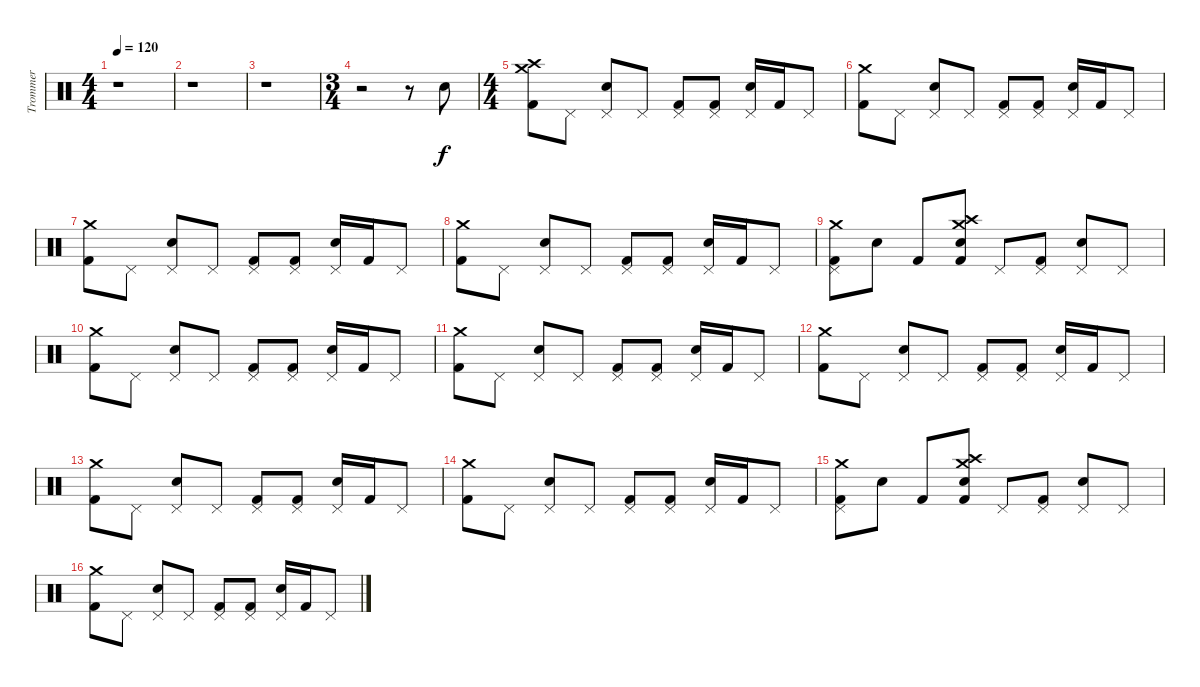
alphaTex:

\track ("Trommer" "Trommer") {instrument percussion}
\staff {score}
\articulation defaults
\ts (4 4)
\tempo 120
\clef neutral
\ks c
r.1{dy f} |
r.1 |
r.1 |
\ts (3 4)
r.2 r.8 "Snare (hit) 2".8 |
\ts (4 4)
("Crash medium (hit)" "Crash high (hit)" "Kick (hit) 2").8 "Pedal Hi-Hat (hit)".8 ("Pedal Hi-Hat (hit)" "Snare (hit) 2").8 "Pedal Hi-Hat (hit)".8 ("Pedal Hi-Hat (hit)" "Kick (hit) 2").8 ("Pedal Hi-Hat (hit)" "Kick (hit) 2").8 ("Pedal Hi-Hat (hit)" "Snare (hit) 2").16 "Kick (hit) 2".16 "Pedal Hi-Hat (hit)".8 |
("Kick (hit) 2" "Crash medium (hit)").8 "Pedal Hi-Hat (hit)".8 ("Pedal Hi-Hat (hit)" "Snare (hit) 2").8 "Pedal Hi-Hat (hit)".8 ("Pedal Hi-Hat (hit)" "Kick (hit) 2").8 ("Pedal Hi-Hat (hit)" "Kick (hit) 2").8 ("Pedal Hi-Hat (hit)" "Snare (hit) 2").16 "Kick (hit) 2".16 "Pedal Hi-Hat (hit)".8 |
("Kick (hit) 2" "Crash medium (hit)").8 "Pedal Hi-Hat (hit)".8 ("Pedal Hi-Hat (hit)" "Snare (hit) 2").8 "Pedal Hi-Hat (hit)".8 ("Pedal Hi-Hat (hit)" "Kick (hit) 2").8 ("Pedal Hi-Hat (hit)" "Kick (hit) 2").8 ("Pedal Hi-Hat (hit)" "Snare (hit) 2").16 "Kick (hit) 2".16 "Pedal Hi-Hat (hit)".8 |
("Kick (hit) 2" "Crash medium (hit)").8 "Pedal Hi-Hat (hit)".8 ("Pedal Hi-Hat (hit)" "Snare (hit) 2").8 "Pedal Hi-Hat (hit)".8 ("Pedal Hi-Hat (hit)" "Kick (hit) 2").8 ("Pedal Hi-Hat (hit)" "Kick (hit) 2").8 ("Pedal Hi-Hat (hit)" "Snare (hit) 2").16 "Kick (hit) 2".16 "Pedal Hi-Hat (hit)".8 |
("Kick (hit) 2" "Crash medium (hit)" "Pedal Hi-Hat (hit)").8 "Snare (hit) 2".8 "Kick (hit) 2".8 ("Snare (hit) 2" "Crash high (hit)" "Crash medium (hit)" "Kick (hit) 2").8 "Pedal Hi-Hat (hit)".8 ("Pedal Hi-Hat (hit)" "Kick (hit) 2").8 ("Pedal Hi-Hat (hit)" "Snare (hit) 2").8 "Pedal Hi-Hat (hit)".8 |
("Kick (hit) 2" "Crash medium (hit)").8 "Pedal Hi-Hat (hit)".8 ("Pedal Hi-Hat (hit)" "Snare (hit) 2").8 "Pedal Hi-Hat (hit)".8 ("Pedal Hi-Hat (hit)" "Kick (hit) 2").8 ("Pedal Hi-Hat (hit)" "Kick (hit) 2").8 ("Pedal Hi-Hat (hit)" "Snare (hit) 2").16 "Kick (hit) 2".16 "Pedal Hi-Hat (hit)".8 |
("Kick (hit) 2" "Crash medium (hit)").8 "Pedal Hi-Hat (hit)".8 ("Pedal Hi-Hat (hit)" "Snare (hit) 2").8 "Pedal Hi-Hat (hit)".8 ("Pedal Hi-Hat (hit)" "Kick (hit) 2").8 ("Pedal Hi-Hat (hit)" "Kick (hit) 2").8 ("Pedal Hi-Hat (hit)" "Snare (hit) 2").16 "Kick (hit) 2".16 "Pedal Hi-Hat (hit)".8 |
("Kick (hit) 2" "Crash medium (hit)").8 "Pedal Hi-Hat (hit)".8 ("Pedal Hi-Hat (hit)" "Snare (hit) 2").8 "Pedal Hi-Hat (hit)".8 ("Pedal Hi-Hat (hit)" "Kick (hit) 2").8 ("Pedal Hi-Hat (hit)" "Kick (hit) 2").8 ("Pedal Hi-Hat (hit)" "Snare (hit) 2").16 "Kick (hit) 2".16 "Pedal Hi-Hat (hit)".8 |
("Kick (hit) 2" "Crash medium (hit)").8 "Pedal Hi-Hat (hit)".8 ("Pedal Hi-Hat (hit)" "Snare (hit) 2").8 "Pedal Hi-Hat (hit)".8 ("Pedal Hi-Hat (hit)" "Kick (hit) 2").8 ("Pedal Hi-Hat (hit)" "Kick (hit) 2").8 ("Pedal Hi-Hat (hit)" "Snare (hit) 2").16 "Kick (hit) 2".16 "Pedal Hi-Hat (hit)".8 |
("Kick (hit) 2" "Crash medium (hit)").8 "Pedal Hi-Hat (hit)".8 ("Pedal Hi-Hat (hit)" "Snare (hit) 2").8 "Pedal Hi-Hat (hit)".8 ("Pedal Hi-Hat (hit)" "Kick (hit) 2").8 ("Pedal Hi-Hat (hit)" "Kick (hit) 2").8 ("Pedal Hi-Hat (hit)" "Snare (hit) 2").16 "Kick (hit) 2".16 "Pedal Hi-Hat (hit)".8 |
("Pedal Hi-Hat (hit)" "Kick (hit) 2" "Crash medium (hit)").8 "Snare (hit) 2".8 "Kick (hit) 2".8 ("Snare (hit) 2" "Kick (hit) 2" "Crash high (hit)" "Crash medium (hit)").8 "Pedal Hi-Hat (hit)".8 ("Kick (hit) 2" "Pedal Hi-Hat (hit)").8 ("Snare (hit) 2" "Pedal Hi-Hat (hit)").8 "Pedal Hi-Hat (hit)".8 |
("Kick (hit) 2" "Crash medium (hit)").8 "Pedal Hi-Hat (hit)".8 ("Pedal Hi-Hat (hit)" "Snare (hit) 2").8 "Pedal Hi-Hat (hit)".8 ("Pedal Hi-Hat (hit)" "Kick (hit) 2").8 ("Pedal Hi-Hat (hit)" "Kick (hit) 2").8 ("Pedal Hi-Hat (hit)" "Snare (hit) 2").16 "Kick (hit) 2".16 "Pedal Hi-Hat (hit)".8
